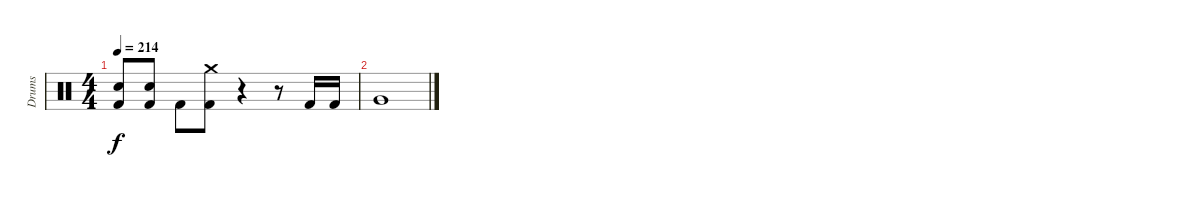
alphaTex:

\track ("Drums" "Drums") {instrument percussion}
\staff {score}
\articulation defaults
\ts (4 4)
\tempo 214
\clef neutral
\ks c
("Snare (hit) 2" "Kick (hit) 2").8{dy f} ("Snare (hit) 2" "Kick (hit) 2").8 "Kick (hit) 2".8 ("Kick (hit) 2" "Crash medium (hit)").8 r.4 r.8 "Kick (hit) 2".16 "Kick (hit) 2".16 |
"Very Low Tom (hit)".1
